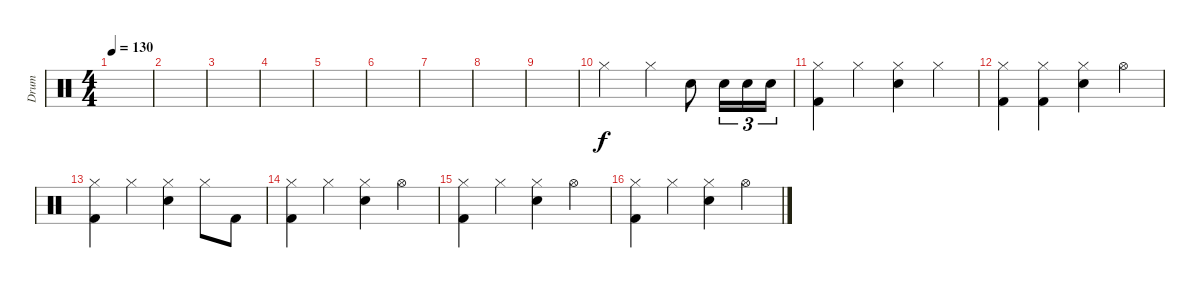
\track ("Drum" "Drum") {instrument percussion}
\staff {score}
\articulation defaults
\ts (4 4)
\tempo 130
\clef neutral
\ks c
|
|
|
|
|
|
|
|
|
"Hi-Hat (closed)".2 "Hi-Hat (closed)".4 "Snare (hit) 2".8 "Snare (hit) 2".16{tu (3 2)} "Snare (hit) 2".16{tu (3 2)} "Snare (hit) 2".16{tu (3 2)} |
("Hi-Hat (closed)" "Kick (hit) 2").4 "Hi-Hat (closed)".4 ("Hi-Hat (closed)" "Snare (hit) 2").4 "Hi-Hat (closed)".4 |
("Hi-Hat (closed)" "Kick (hit) 2").4 ("Hi-Hat (closed)" "Kick (hit) 2").4 ("Hi-Hat (closed)" "Snare (hit) 2").4 "Hi-Hat (open)".4 |
("Hi-Hat (closed)" "Kick (hit) 2").4 "Hi-Hat (closed)".4 ("Hi-Hat (closed)" "Snare (hit) 2").4 "Hi-Hat (closed)".8 "Kick (hit) 2".8 |
("Hi-Hat (closed)" "Kick (hit) 2").4 "Hi-Hat (closed)".4 ("Hi-Hat (closed)" "Snare (hit) 2").4 "Hi-Hat (open)".4 |
("Hi-Hat (closed)" "Kick (hit) 2").4 "Hi-Hat (closed)".4 ("Hi-Hat (closed)" "Snare (hit) 2").4 "Hi-Hat (open)".4 |
("Hi-Hat (closed)" "Kick (hit) 2").4 "Hi-Hat (closed)".4 ("Hi-Hat (closed)" "Snare (hit) 2").4 "Hi-Hat (open)".4
